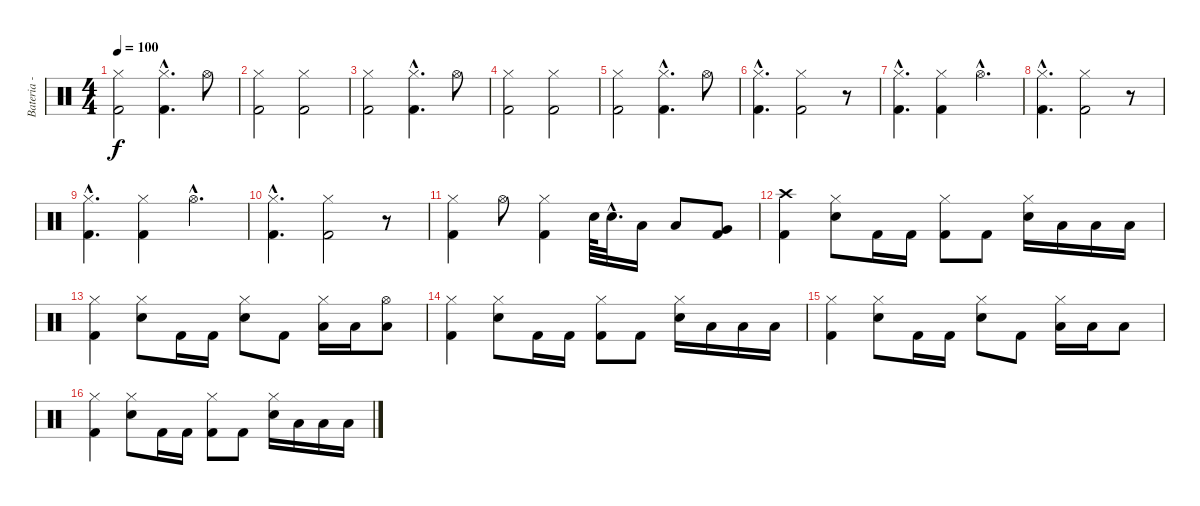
\track ("Bateria - Drums" "Bateria - ") {instrument percussion}
\staff {score}
\articulation defaults
\ts (4 4)
\tempo 100
\clef neutral
\ks c
("Hi-Hat (closed)" "Kick (hit) 2").2{dy f} ("Hi-Hat (closed)"{hac} "Kick (hit) 2"{hac}).4{d} "Hi-Hat (open)".8 |
("Hi-Hat (closed)" "Kick (hit) 2").2 ("Hi-Hat (closed)" "Kick (hit) 2").2 |
("Hi-Hat (closed)" "Kick (hit) 2").2 ("Hi-Hat (closed)"{hac} "Kick (hit) 2"{hac}).4{d} "Hi-Hat (open)".8 |
("Hi-Hat (closed)" "Kick (hit) 2").2 ("Hi-Hat (closed)" "Kick (hit) 2").2 |
("Hi-Hat (closed)" "Kick (hit) 2").2 ("Hi-Hat (closed)"{hac} "Kick (hit) 2"{hac}).4{d} "Hi-Hat (open)".8 |
("Hi-Hat (closed)"{hac} "Kick (hit) 2"{hac}).4{d} ("Hi-Hat (closed)" "Kick (hit) 2").2 r.8 |
("Hi-Hat (closed)"{hac} "Kick (hit) 2"{hac}).4{d} ("Hi-Hat (closed)" "Kick (hit) 2").4 "Hi-Hat (open)"{hac}.4{d} |
("Hi-Hat (closed)"{hac} "Kick (hit) 2"{hac}).4{d} ("Hi-Hat (closed)" "Kick (hit) 2").2 r.8 |
("Hi-Hat (closed)"{hac} "Kick (hit) 2"{hac}).4{d} ("Hi-Hat (closed)" "Kick (hit) 2").4 "Hi-Hat (open)"{hac}.4{d} |
("Hi-Hat (closed)"{hac} "Kick (hit) 2"{hac}).4{d} ("Hi-Hat (closed)" "Kick (hit) 2").2 r.8 |
("Hi-Hat (closed)" "Kick (hit) 2").4 "Hi-Hat (open)".8 ("Hi-Hat (closed)" "Kick (hit) 2").4 "Electric Snare (hit)".64 "Electric Snare (hit)"{hac}.32{d} "Low Tom (hit)".16 "Low Floor Tom (hit)".8 ("Very Low Tom (hit)" "Kick (hit) 2").8 |
("Crash high (hit)" "Kick (hit) 2").4 ("Hi-Hat (closed)" "Electric Snare (hit)").8 "Kick (hit) 2".16 "Kick (hit) 2".16 ("Hi-Hat (closed)" "Kick (hit) 2").8 "Kick (hit) 2".8 ("Hi-Hat (closed)" "Electric Snare (hit)").16 "Low Tom (hit)".16 "Low Tom (hit)".16 "Low Floor Tom (hit)".16 |
("Hi-Hat (closed)" "Kick (hit) 2").4 ("Hi-Hat (closed)" "Electric Snare (hit)").8 "Kick (hit) 2".16 "Kick (hit) 2".16 ("Hi-Hat (closed)" "Electric Snare (hit)").8 "Kick (hit) 2".8 ("Hi-Hat (closed)" "Low Tom (hit)").16 "Low Floor Tom (hit)".16 ("Hi-Hat (open)" "Low Floor Tom (hit)").8 |
("Hi-Hat (closed)" "Kick (hit) 2").4 ("Hi-Hat (closed)" "Electric Snare (hit)").8 "Kick (hit) 2".16 "Kick (hit) 2".16 ("Hi-Hat (closed)" "Kick (hit) 2").8 "Kick (hit) 2".8 ("Hi-Hat (closed)" "Electric Snare (hit)").16 "Low Tom (hit)".16 "Low Tom (hit)".16 "Low Floor Tom (hit)".16 |
("Hi-Hat (closed)" "Kick (hit) 2").4 ("Hi-Hat (closed)" "Electric Snare (hit)").8 "Kick (hit) 2".16 "Kick (hit) 2".16 ("Hi-Hat (closed)" "Electric Snare (hit)").8 "Kick (hit) 2".8 ("Hi-Hat (closed)" "Low Tom (hit)").16 "Low Floor Tom (hit)".16 "Low Floor Tom (hit)".8 |
("Hi-Hat (closed)" "Kick (hit) 2").4 ("Hi-Hat (closed)" "Electric Snare (hit)").8 "Kick (hit) 2".16 "Kick (hit) 2".16 ("Hi-Hat (closed)" "Kick (hit) 2").8 "Kick (hit) 2".8 ("Hi-Hat (closed)" "Electric Snare (hit)").16 "Low Tom (hit)".16 "Low Tom (hit)".16 "Low Floor Tom (hit)".16
